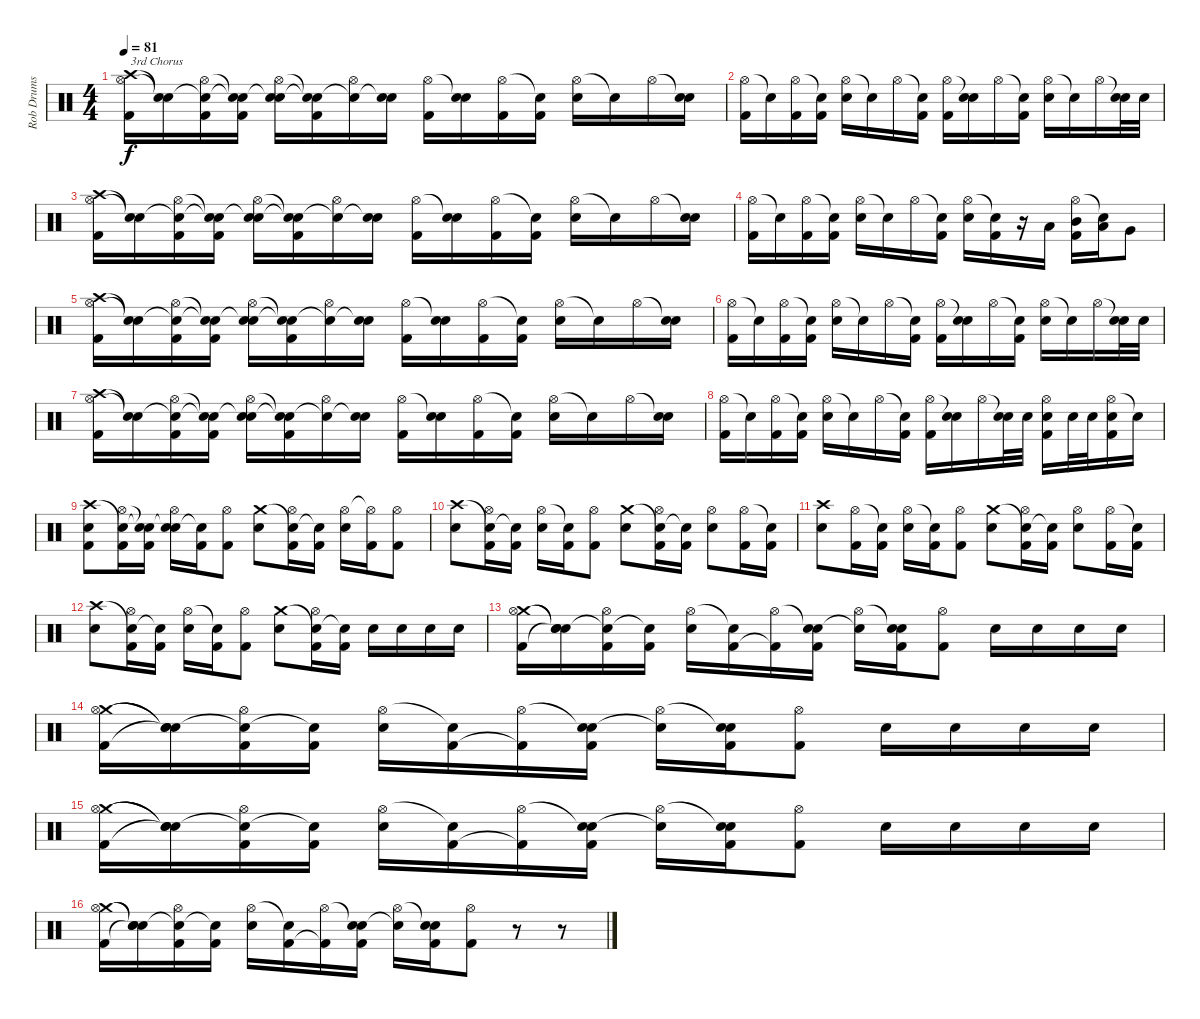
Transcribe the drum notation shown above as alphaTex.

\track ("Rob Drums" "Rob Drums") {instrument percussion}
\staff {score}
\articulation defaults
\ts (4 4)
\tempo 81
\clef neutral
\ks c
("Crash high (hit)" "Hi-Hat (open)" "Kick (hit) 2").16{txt "3rd Chorus" dy f volume 12} ("Snare (hit)"{t} "Snare (hit)"{t}).16 ("Snare (hit)"{t} "Hi-Hat (open)" "Kick (hit) 2").16 ("Snare (hit)"{t} "Snare (hit)"{t} "Kick (hit) 2").16 ("Snare (hit)"{t} "Hi-Hat (open)" "Electric Snare (hit)").16 ("Snare (hit)"{t} "Snare (hit)"{t} "Kick (hit) 2").16 ("Snare (hit)"{t} "Hi-Hat (open)").16 ("Snare (hit)"{t} "Electric Snare (hit)").16 ("Hi-Hat (open)" "Kick (hit) 2").16 ("Snare (hit)"{t} "Electric Snare (hit)").16 ("Hi-Hat (open)" "Kick (hit) 2").16 ("Snare (hit)"{t} "Kick (hit) 2").16 ("Hi-Hat (open)" "Electric Snare (hit)").16 "Snare (hit)"{t}.16 "Hi-Hat (open)".16 ("Snare (hit)"{t} "Electric Snare (hit)").16 |
("Hi-Hat (open)" "Kick (hit) 2").16 "Snare (hit)"{t}.16 ("Hi-Hat (open)" "Kick (hit) 2").16 ("Snare (hit)"{t} "Kick (hit) 2").16 ("Hi-Hat (open)" "Electric Snare (hit)").16 "Snare (hit)"{t}.16 "Hi-Hat (open)".16 ("Snare (hit)"{t} "Kick (hit) 2").16 ("Hi-Hat (open)" "Kick (hit) 2").16 ("Snare (hit)"{t} "Electric Snare (hit)").16 "Hi-Hat (open)".16 ("Snare (hit)"{t} "Kick (hit) 2").16 ("Hi-Hat (open)" "Electric Snare (hit)").16 "Snare (hit)"{t}.16 "Hi-Hat (open)".16 ("Snare (hit)"{t} "Electric Snare (hit)").32 "Electric Snare (hit)".32 |
("Crash high (hit)" "Hi-Hat (open)" "Kick (hit) 2").16 ("Snare (hit)"{t} "Snare (hit)"{t}).16 ("Snare (hit)"{t} "Hi-Hat (open)" "Kick (hit) 2").16 ("Snare (hit)"{t} "Snare (hit)"{t} "Kick (hit) 2").16 ("Snare (hit)"{t} "Hi-Hat (open)" "Electric Snare (hit)").16 ("Snare (hit)"{t} "Snare (hit)"{t} "Kick (hit) 2").16 ("Snare (hit)"{t} "Hi-Hat (open)").16 ("Snare (hit)"{t} "Electric Snare (hit)").16 ("Hi-Hat (open)" "Kick (hit) 2").16 ("Snare (hit)"{t} "Electric Snare (hit)").16 ("Hi-Hat (open)" "Kick (hit) 2").16 ("Snare (hit)"{t} "Kick (hit) 2").16 ("Hi-Hat (open)" "Electric Snare (hit)").16 "Snare (hit)"{t}.16 "Hi-Hat (open)".16 ("Snare (hit)"{t} "Electric Snare (hit)").16 |
("Hi-Hat (open)" "Kick (hit) 2").16 "Snare (hit)"{t}.16 ("Hi-Hat (open)" "Kick (hit) 2").16 ("Snare (hit)"{t} "Kick (hit) 2").16 ("Hi-Hat (open)" "Electric Snare (hit)").16 "Snare (hit)"{t}.16 "Hi-Hat (open)".16 ("Snare (hit)"{t} "Kick (hit) 2").16 ("Hi-Hat (open)" "Electric Snare (hit)").16 ("Snare (hit)"{t} "Kick (hit) 2").16 r.16 "Low Tom (hit)".16 ("Hi-Hat (open)" "Mid Tom (hit)" "Kick (hit) 2").16 ("Snare (hit)"{t} "Low Tom (hit)").16 "Very Low Tom (hit)".8 |
("Crash high (hit)" "Hi-Hat (open)" "Kick (hit) 2").16 ("Snare (hit)"{t} "Snare (hit)"{t}).16 ("Snare (hit)"{t} "Hi-Hat (open)" "Kick (hit) 2").16 ("Snare (hit)"{t} "Snare (hit)"{t} "Kick (hit) 2").16 ("Snare (hit)"{t} "Hi-Hat (open)" "Electric Snare (hit)").16 ("Snare (hit)"{t} "Snare (hit)"{t} "Kick (hit) 2").16 ("Snare (hit)"{t} "Hi-Hat (open)").16 ("Snare (hit)"{t} "Electric Snare (hit)").16 ("Hi-Hat (open)" "Kick (hit) 2").16 ("Snare (hit)"{t} "Electric Snare (hit)").16 ("Hi-Hat (open)" "Kick (hit) 2").16 ("Snare (hit)"{t} "Kick (hit) 2").16 ("Hi-Hat (open)" "Electric Snare (hit)").16 "Snare (hit)"{t}.16 "Hi-Hat (open)".16 ("Snare (hit)"{t} "Electric Snare (hit)").16 |
("Hi-Hat (open)" "Kick (hit) 2").16 "Snare (hit)"{t}.16 ("Hi-Hat (open)" "Kick (hit) 2").16 ("Snare (hit)"{t} "Kick (hit) 2").16 ("Hi-Hat (open)" "Electric Snare (hit)").16 "Snare (hit)"{t}.16 "Hi-Hat (open)".16 ("Snare (hit)"{t} "Kick (hit) 2").16 ("Hi-Hat (open)" "Kick (hit) 2").16 ("Snare (hit)"{t} "Electric Snare (hit)").16 "Hi-Hat (open)".16 ("Snare (hit)"{t} "Kick (hit) 2").16 ("Hi-Hat (open)" "Electric Snare (hit)").16 "Snare (hit)"{t}.16 "Hi-Hat (open)".16 ("Snare (hit)"{t} "Electric Snare (hit)").32 "Electric Snare (hit)".32 |
("Crash high (hit)" "Hi-Hat (open)" "Kick (hit) 2").16 ("Snare (hit)"{t} "Snare (hit)"{t}).16 ("Snare (hit)"{t} "Hi-Hat (open)" "Kick (hit) 2").16 ("Snare (hit)"{t} "Snare (hit)"{t} "Kick (hit) 2").16 ("Snare (hit)"{t} "Hi-Hat (open)" "Electric Snare (hit)").16 ("Snare (hit)"{t} "Snare (hit)"{t} "Kick (hit) 2").16 ("Snare (hit)"{t} "Hi-Hat (open)").16 ("Snare (hit)"{t} "Electric Snare (hit)").16 ("Hi-Hat (open)" "Kick (hit) 2").16 ("Snare (hit)"{t} "Electric Snare (hit)").16 ("Hi-Hat (open)" "Kick (hit) 2").16 ("Snare (hit)"{t} "Kick (hit) 2").16 ("Hi-Hat (open)" "Electric Snare (hit)").16 "Snare (hit)"{t}.16 "Hi-Hat (open)".16 ("Snare (hit)"{t} "Electric Snare (hit)").16 |
("Hi-Hat (open)" "Kick (hit) 2").16 "Snare (hit)"{t}.16 ("Hi-Hat (open)" "Kick (hit) 2").16 ("Snare (hit)"{t} "Kick (hit) 2").16 ("Hi-Hat (open)" "Electric Snare (hit)").16 "Snare (hit)"{t}.16 "Hi-Hat (open)".16 ("Snare (hit)"{t} "Kick (hit) 2").16 ("Hi-Hat (open)" "Kick (hit) 2").16 ("Snare (hit)"{t} "Electric Snare (hit)").16 "Hi-Hat (open)".16 ("Snare (hit)"{t} "Electric Snare (hit)").32 "Electric Snare (hit)".32 ("Hi-Hat (open)" "Electric Snare (hit)" "Kick (hit) 2").16 "Electric Snare (hit)".32 "Electric Snare (hit)".32 ("Hi-Hat (open)" "Electric Snare (hit)" "Kick (hit) 2").16 "Snare (hit)"{t}.16 |
("Crash high (hit)" "Electric Snare (hit)" "Kick (hit) 2").8 ("Snare (hit)"{t} "Hi-Hat (open)" "Kick (hit) 2").16 ("Snare (hit)"{t} "Snare (hit)"{t} "Kick (hit) 2").16 ("Snare (hit)"{t} "Hi-Hat (open)" "Electric Snare (hit)").16 ("Snare (hit)"{t} "Kick (hit) 2").16 ("Hi-Hat (open)" "Kick (hit) 2").8 ("Crash medium (hit)" "Electric Snare (hit)").8 ("Snare (hit)"{t} "Hi-Hat (open)" "Kick (hit) 2").16 ("Snare (hit)"{t} "Kick (hit) 2").16 ("Hi-Hat (open)" "Electric Snare (hit)").16 ("Hi-Hat (open)"{t} "Kick (hit) 2").16 ("Hi-Hat (open)" "Kick (hit) 2").8 |
("Crash high (hit)" "Electric Snare (hit)").8 ("Snare (hit)"{t} "Hi-Hat (open)" "Kick (hit) 2").16 ("Snare (hit)"{t} "Kick (hit) 2").16 ("Hi-Hat (open)" "Electric Snare (hit)").16 ("Snare (hit)"{t} "Kick (hit) 2").16 ("Hi-Hat (open)" "Kick (hit) 2").8 ("Crash medium (hit)" "Electric Snare (hit)").8 ("Snare (hit)"{t} "Hi-Hat (open)" "Kick (hit) 2").16 ("Snare (hit)"{t} "Kick (hit) 2").16 ("Hi-Hat (open)" "Electric Snare (hit)").8 ("Hi-Hat (open)" "Kick (hit) 2").16 ("Snare (hit)"{t} "Kick (hit) 2").16 |
("Crash high (hit)" "Electric Snare (hit)").8 ("Hi-Hat (open)" "Kick (hit) 2").16 ("Snare (hit)"{t} "Kick (hit) 2").16 ("Hi-Hat (open)" "Electric Snare (hit)").16 ("Snare (hit)"{t} "Kick (hit) 2").16 ("Hi-Hat (open)" "Kick (hit) 2").8 ("Crash medium (hit)" "Electric Snare (hit)").8 ("Snare (hit)"{t} "Hi-Hat (open)" "Kick (hit) 2").16 ("Snare (hit)"{t} "Kick (hit) 2").16 ("Hi-Hat (open)" "Electric Snare (hit)").8 ("Hi-Hat (open)" "Kick (hit) 2").16 ("Snare (hit)"{t} "Kick (hit) 2").16 |
("Crash high (hit)" "Electric Snare (hit)").8 ("Snare (hit)"{t} "Hi-Hat (open)" "Kick (hit) 2").16 ("Snare (hit)"{t} "Kick (hit) 2").16 ("Hi-Hat (open)" "Electric Snare (hit)").16 ("Snare (hit)"{t} "Kick (hit) 2").16 ("Hi-Hat (open)" "Kick (hit) 2").8 ("Crash medium (hit)" "Electric Snare (hit)").8 ("Snare (hit)"{t} "Hi-Hat (open)" "Kick (hit) 2").16 ("Snare (hit)"{t} "Kick (hit) 2").16 "Electric Snare (hit)".16 "Electric Snare (hit)".16 "Electric Snare (hit)".16 "Electric Snare (hit)".16 |
("Crash medium (hit)" "Hi-Hat (open)" "Kick (hit) 2").16 ("Snare (hit)"{t} "Snare (hit)"{t} "Snare (hit)"{t}).16 ("Snare (hit)"{t} "Hi-Hat (open)" "Kick (hit) 2").16 ("Snare (hit)"{t} "Kick (hit) 2").16 ("Hi-Hat (open)" "Electric Snare (hit)").16 ("Snare (hit)"{t} "Kick (hit) 2").16 ("Hi-Hat (open)" "Kick (hit) 2"{t}).16 ("Snare (hit)"{t} "Electric Snare (hit)" "Kick (hit) 2").16 ("Hi-Hat (open)" "Snare (hit)"{t}).16 ("Snare (hit)"{t} "Electric Snare (hit)" "Kick (hit) 2").16 ("Hi-Hat (open)" "Kick (hit) 2").8 "Electric Snare (hit)".16 "Electric Snare (hit)".16 "Electric Snare (hit)".16 "Electric Snare (hit)".16 |
("Crash medium (hit)" "Hi-Hat (open)" "Kick (hit) 2").16 ("Snare (hit)"{t} "Snare (hit)"{t} "Snare (hit)"{t}).16 ("Snare (hit)"{t} "Hi-Hat (open)" "Kick (hit) 2").16 ("Snare (hit)"{t} "Kick (hit) 2").16 ("Hi-Hat (open)" "Electric Snare (hit)").16 ("Snare (hit)"{t} "Kick (hit) 2").16 ("Hi-Hat (open)" "Kick (hit) 2"{t}).16 ("Snare (hit)"{t} "Electric Snare (hit)" "Kick (hit) 2").16 ("Hi-Hat (open)" "Snare (hit)"{t}).16 ("Snare (hit)"{t} "Electric Snare (hit)" "Kick (hit) 2").16 ("Hi-Hat (open)" "Kick (hit) 2").8 "Electric Snare (hit)".16 "Electric Snare (hit)".16 "Electric Snare (hit)".16 "Electric Snare (hit)".16 |
("Crash medium (hit)" "Hi-Hat (open)" "Kick (hit) 2").16 ("Snare (hit)"{t} "Snare (hit)"{t} "Snare (hit)"{t}).16 ("Snare (hit)"{t} "Hi-Hat (open)" "Kick (hit) 2").16 ("Snare (hit)"{t} "Kick (hit) 2").16 ("Hi-Hat (open)" "Electric Snare (hit)").16 ("Snare (hit)"{t} "Kick (hit) 2").16 ("Hi-Hat (open)" "Kick (hit) 2"{t}).16 ("Snare (hit)"{t} "Electric Snare (hit)" "Kick (hit) 2").16 ("Hi-Hat (open)" "Snare (hit)"{t}).16 ("Snare (hit)"{t} "Electric Snare (hit)" "Kick (hit) 2").16 ("Hi-Hat (open)" "Kick (hit) 2").8 "Electric Snare (hit)".16 "Electric Snare (hit)".16 "Electric Snare (hit)".16 "Electric Snare (hit)".16 |
("Crash medium (hit)" "Hi-Hat (open)" "Kick (hit) 2").16 ("Snare (hit)"{t} "Snare (hit)"{t} "Snare (hit)"{t}).16 ("Snare (hit)"{t} "Hi-Hat (open)" "Kick (hit) 2").16 ("Snare (hit)"{t} "Kick (hit) 2").16 ("Hi-Hat (open)" "Electric Snare (hit)").16 ("Snare (hit)"{t} "Kick (hit) 2").16 ("Hi-Hat (open)" "Kick (hit) 2"{t}).16 ("Snare (hit)"{t} "Electric Snare (hit)" "Kick (hit) 2").16 ("Hi-Hat (open)" "Snare (hit)"{t}).16 ("Snare (hit)"{t} "Electric Snare (hit)" "Kick (hit) 2").16 ("Hi-Hat (open)" "Kick (hit) 2").8 r.8 r.8
